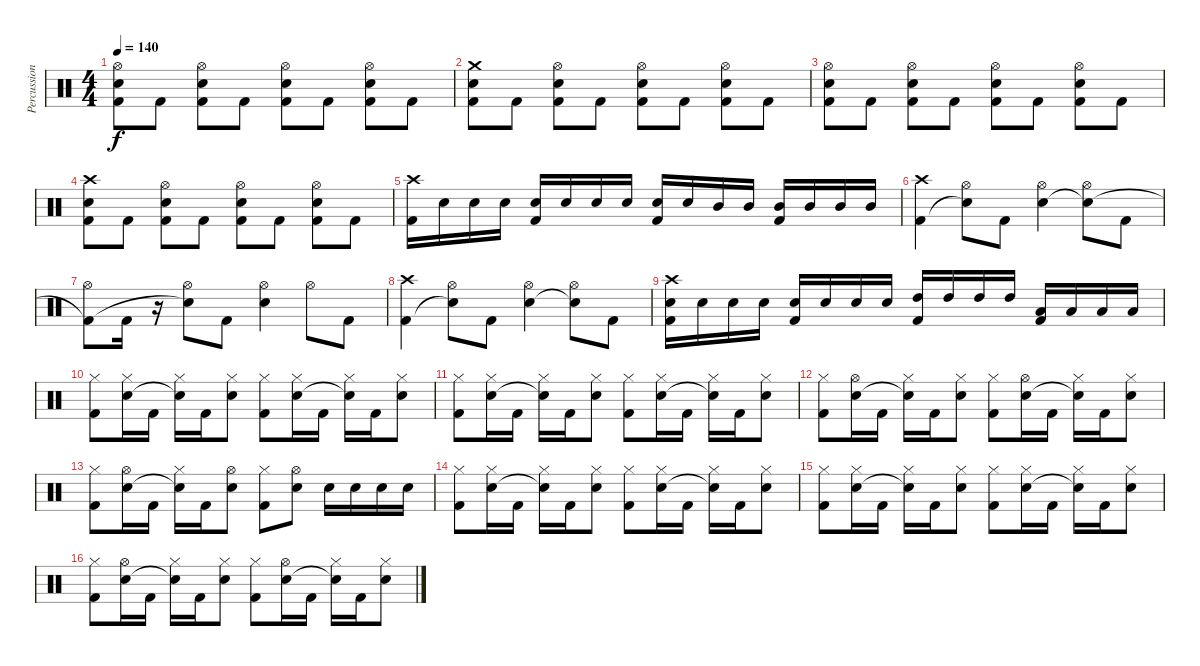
\track ("Percussion" "Percussion") {instrument percussion}
\staff {score}
\articulation defaults
\ts (4 4)
\tempo 140
\clef neutral
\ks c
("Hi-Hat (open)" "Snare (hit) 2" "Kick (hit) 2").8{dy f} "Kick (hit) 2".8 ("Hi-Hat (open)" "Snare (hit) 2" "Kick (hit) 2").8 "Kick (hit) 2".8 ("Hi-Hat (open)" "Snare (hit) 2" "Kick (hit) 2").8 "Kick (hit) 2".8 ("Hi-Hat (open)" "Snare (hit) 2" "Kick (hit) 2").8 "Kick (hit) 2".8 |
("Crash medium (hit)" "Snare (hit) 2" "Kick (hit) 2").8 "Kick (hit) 2".8 ("Hi-Hat (open)" "Snare (hit) 2" "Kick (hit) 2").8 "Kick (hit) 2".8 ("Hi-Hat (open)" "Snare (hit) 2" "Kick (hit) 2").8 "Kick (hit) 2".8 ("Hi-Hat (open)" "Snare (hit) 2" "Kick (hit) 2").8 "Kick (hit) 2".8 |
("Hi-Hat (open)" "Snare (hit) 2" "Kick (hit) 2").8 "Kick (hit) 2".8 ("Hi-Hat (open)" "Snare (hit) 2" "Kick (hit) 2").8 "Kick (hit) 2".8 ("Hi-Hat (open)" "Snare (hit) 2" "Kick (hit) 2").8 "Kick (hit) 2".8 ("Hi-Hat (open)" "Snare (hit) 2" "Kick (hit) 2").8 "Kick (hit) 2".8 |
("Crash high (hit)" "Snare (hit) 2" "Kick (hit) 2").8 "Kick (hit) 2".8 ("Hi-Hat (open)" "Snare (hit) 2" "Kick (hit) 2").8 "Kick (hit) 2".8 ("Hi-Hat (open)" "Snare (hit) 2" "Kick (hit) 2").8 "Kick (hit) 2".8 ("Hi-Hat (open)" "Snare (hit) 2" "Kick (hit) 2").8 "Kick (hit) 2".8 |
("Crash high (hit)" "Kick (hit) 2").16 "Snare (hit) 2".16 "Snare (hit) 2".16 "Snare (hit) 2".16 ("Snare (hit) 2" "Kick (hit) 2").16 "Snare (hit) 2".16 "Snare (hit) 2".16 "Snare (hit) 2".16 ("Snare (hit) 2" "Kick (hit) 2").16 "Snare (hit) 2".16 "Mid Tom (hit)".16 "Mid Tom (hit)".16 ("Mid Tom (hit)" "Kick (hit) 2").16 "Mid Tom (hit)".16 "Mid Tom (hit)".16 "Mid Tom (hit)".16 |
("Crash high (hit)" "Kick (hit) 2").4 ("Hi-Hat (open)" "Snare (hit)"{t}).8 "Kick (hit) 2".8 ("Hi-Hat (open)" "Snare (hit) 2").4 ("Hi-Hat (open)" "Snare (hit)"{t}).8 "Kick (hit) 2".8 |
("Hi-Hat (open)" "Kick (hit) 2"{t}).8 "Kick (hit) 2".16 r.16 ("Hi-Hat (open)" "Snare (hit)"{t}).8 "Kick (hit) 2".8 ("Hi-Hat (open)" "Snare (hit) 2").4 "Hi-Hat (open)".8 "Kick (hit) 2".8 |
("Crash high (hit)" "Kick (hit) 2").4 ("Hi-Hat (open)" "Snare (hit)"{t}).8 "Kick (hit) 2".8 ("Hi-Hat (open)" "Snare (hit) 2").4 ("Hi-Hat (open)" "Snare (hit)"{t}).8 "Kick (hit) 2".8 |
("Crash high (hit)" "Snare (hit) 2" "Kick (hit) 2").16 "Snare (hit) 2".16 "Snare (hit) 2".16 "Snare (hit) 2".16 ("Snare (hit) 2" "Kick (hit) 2").16 "Snare (hit) 2".16 "Snare (hit) 2".16 "Snare (hit) 2".16 ("High Tom (hit)" "Kick (hit) 2").16 "High Tom (hit)".16 "High Tom (hit)".16 "High Tom (hit)".16 ("Low Tom (hit)" "Kick (hit) 2").16 "Low Tom (hit)".16 "Low Tom (hit)".16 "Low Tom (hit)".16 |
("Hi-Hat (closed)" "Kick (hit) 2").8 ("Hi-Hat (closed)" "Snare (hit) 2").16 "Kick (hit) 2".16 ("Hi-Hat (closed)" "Snare (hit)"{t}).16 "Kick (hit) 2".16 ("Hi-Hat (closed)" "Snare (hit) 2").8 ("Hi-Hat (closed)" "Kick (hit) 2").8 ("Hi-Hat (closed)" "Snare (hit) 2").16 "Kick (hit) 2".16 ("Hi-Hat (closed)" "Snare (hit)"{t}).16 "Kick (hit) 2".16 ("Hi-Hat (closed)" "Snare (hit) 2").8 |
("Hi-Hat (closed)" "Kick (hit) 2").8 ("Hi-Hat (closed)" "Snare (hit) 2").16 "Kick (hit) 2".16 ("Hi-Hat (closed)" "Snare (hit)"{t}).16 "Kick (hit) 2".16 ("Hi-Hat (closed)" "Snare (hit) 2").8 ("Hi-Hat (closed)" "Kick (hit) 2").8 ("Hi-Hat (closed)" "Snare (hit) 2").16 "Kick (hit) 2".16 ("Hi-Hat (closed)" "Snare (hit)"{t}).16 "Kick (hit) 2".16 ("Hi-Hat (closed)" "Snare (hit) 2").8 |
("Hi-Hat (closed)" "Kick (hit) 2").8 ("Hi-Hat (open)" "Snare (hit) 2").16 "Kick (hit) 2".16 ("Hi-Hat (closed)" "Snare (hit)"{t}).16 "Kick (hit) 2".16 ("Hi-Hat (closed)" "Snare (hit) 2").8 ("Hi-Hat (closed)" "Kick (hit) 2").8 ("Hi-Hat (open)" "Snare (hit) 2").16 "Kick (hit) 2".16 ("Hi-Hat (closed)" "Snare (hit)"{t}).16 "Kick (hit) 2".16 ("Hi-Hat (closed)" "Snare (hit) 2").8 |
("Hi-Hat (closed)" "Kick (hit) 2").8 ("Hi-Hat (open)" "Snare (hit) 2").16 "Kick (hit) 2".16 ("Hi-Hat (closed)" "Snare (hit)"{t}).16 "Kick (hit) 2".16 ("Hi-Hat (open)" "Snare (hit) 2").8 ("Hi-Hat (closed)" "Kick (hit) 2").8 ("Hi-Hat (open)" "Snare (hit) 2").8 "Snare (hit) 2".16 "Snare (hit) 2".16 "Snare (hit) 2".16 "Snare (hit) 2".16 |
("Hi-Hat (closed)" "Kick (hit) 2").8 ("Hi-Hat (closed)" "Snare (hit) 2").16 "Kick (hit) 2".16 ("Hi-Hat (closed)" "Snare (hit)"{t}).16 "Kick (hit) 2".16 ("Hi-Hat (closed)" "Snare (hit) 2").8 ("Hi-Hat (closed)" "Kick (hit) 2").8 ("Hi-Hat (closed)" "Snare (hit) 2").16 "Kick (hit) 2".16 ("Hi-Hat (closed)" "Snare (hit)"{t}).16 "Kick (hit) 2".16 ("Hi-Hat (closed)" "Snare (hit) 2").8 |
("Hi-Hat (closed)" "Kick (hit) 2").8 ("Hi-Hat (closed)" "Snare (hit) 2").16 "Kick (hit) 2".16 ("Hi-Hat (closed)" "Snare (hit)"{t}).16 "Kick (hit) 2".16 ("Hi-Hat (closed)" "Snare (hit) 2").8 ("Hi-Hat (closed)" "Kick (hit) 2").8 ("Hi-Hat (closed)" "Snare (hit) 2").16 "Kick (hit) 2".16 ("Hi-Hat (closed)" "Snare (hit)"{t}).16 "Kick (hit) 2".16 ("Hi-Hat (closed)" "Snare (hit) 2").8 |
("Hi-Hat (closed)" "Kick (hit) 2").8 ("Hi-Hat (open)" "Snare (hit) 2").16 "Kick (hit) 2".16 ("Hi-Hat (closed)" "Snare (hit)"{t}).16 "Kick (hit) 2".16 ("Hi-Hat (closed)" "Snare (hit) 2").8 ("Hi-Hat (closed)" "Kick (hit) 2").8 ("Hi-Hat (open)" "Snare (hit) 2").16 "Kick (hit) 2".16 ("Hi-Hat (closed)" "Snare (hit)"{t}).16 "Kick (hit) 2".16 ("Hi-Hat (closed)" "Snare (hit) 2").8
